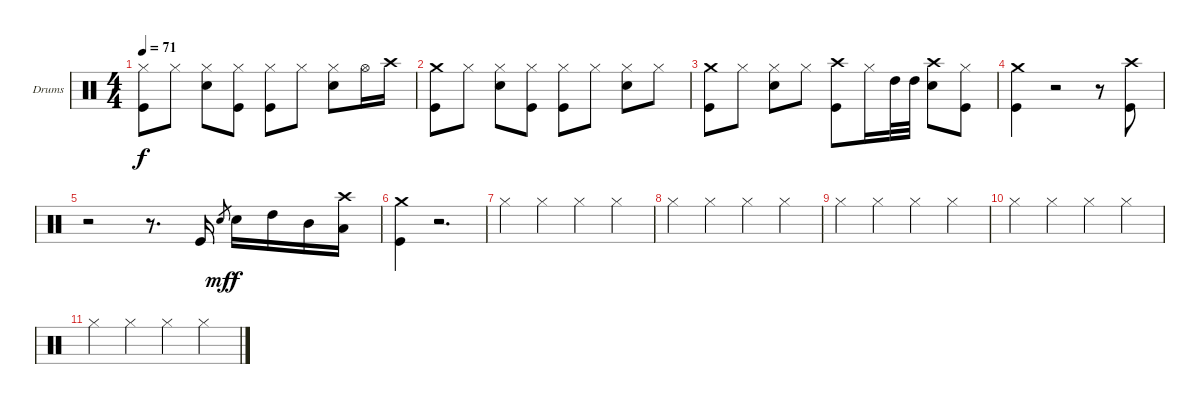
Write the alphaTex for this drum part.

\bracketExtendMode groupsimilarinstruments
\firstSystemTrackNameOrientation horizontal
\otherSystemsTrackNameOrientation horizontal
\track ("Барабаны" "Drums") {instrument percussion}
\staff {score}
\articulation defaults
\ts (4 4)
\tempo 71
\clef neutral
\scale
0.333333
\ks c
("Hi-Hat (closed)" "Kick (hit)").8{dy f} "Hi-Hat (closed)".8 ("Hi-Hat (closed)" "Snare (hit) 2").8 ("Hi-Hat (closed)" "Kick (hit)").8 ("Hi-Hat (closed)" "Kick (hit)").8 "Hi-Hat (closed)".8 ("Hi-Hat (closed)" "Snare (hit) 2").8 "Hi-Hat (open)".16 "Crash high (hit)".16 |
\scale
0.333333 ("Crash medium (hit)" "Kick (hit)").8 "Hi-Hat (closed)".8 ("Hi-Hat (closed)" "Snare (hit) 2").8 ("Hi-Hat (closed)" "Kick (hit)").8 ("Hi-Hat (closed)" "Kick (hit)").8 "Hi-Hat (closed)".8 ("Hi-Hat (closed)" "Snare (hit) 2").8 "Hi-Hat (closed)".8 |
\scale
0.333333 ("Crash medium (hit)" "Kick (hit)").8 "Hi-Hat (closed)".8 ("Hi-Hat (closed)" "Snare (hit) 2").8 "Hi-Hat (closed)".8 ("Crash high (hit)" "Kick (hit)").8 "Hi-Hat (closed)".16 "High Tom (hit)".32 "High Tom (hit)".32 ("Crash high (hit)" "Snare (hit) 2").8 ("Hi-Hat (closed)" "Kick (hit)").8 |
\scale
0.333333 ("Crash medium (hit)" "Kick (hit)").4 r.2 r.8 ("Crash high (hit)" "Kick (hit)").8 |
\scale
0.333333 r.2 r.8{d} "Kick (hit)".16 "Snare (hit) 2".8{gr dy mf} "Snare (hit) 2".16{dy f} "High Tom (hit)".16 "Mid Tom (hit)".16 ("Crash high (hit)" "Low Tom (hit)").16 |
\scale
0.333333 ("Crash medium (hit)" "Kick (hit)").4 r.2{d} |
\scale
0.333333 "Hi-Hat (closed)".4 "Hi-Hat (closed)".4 "Hi-Hat (closed)".4 "Hi-Hat (closed)".4 |
\scale
0.333333 "Hi-Hat (closed)".4 "Hi-Hat (closed)".4 "Hi-Hat (closed)".4 "Hi-Hat (closed)".4 |
\scale
0.333333 "Hi-Hat (closed)".4 "Hi-Hat (closed)".4 "Hi-Hat (closed)".4 "Hi-Hat (closed)".4 |
\scale
0.333333 "Hi-Hat (closed)".4 "Hi-Hat (closed)".4 "Hi-Hat (closed)".4 "Hi-Hat (closed)".4 |
\scale
0.333333 "Hi-Hat (closed)".4 "Hi-Hat (closed)".4 "Hi-Hat (closed)".4 "Hi-Hat (closed)".4
